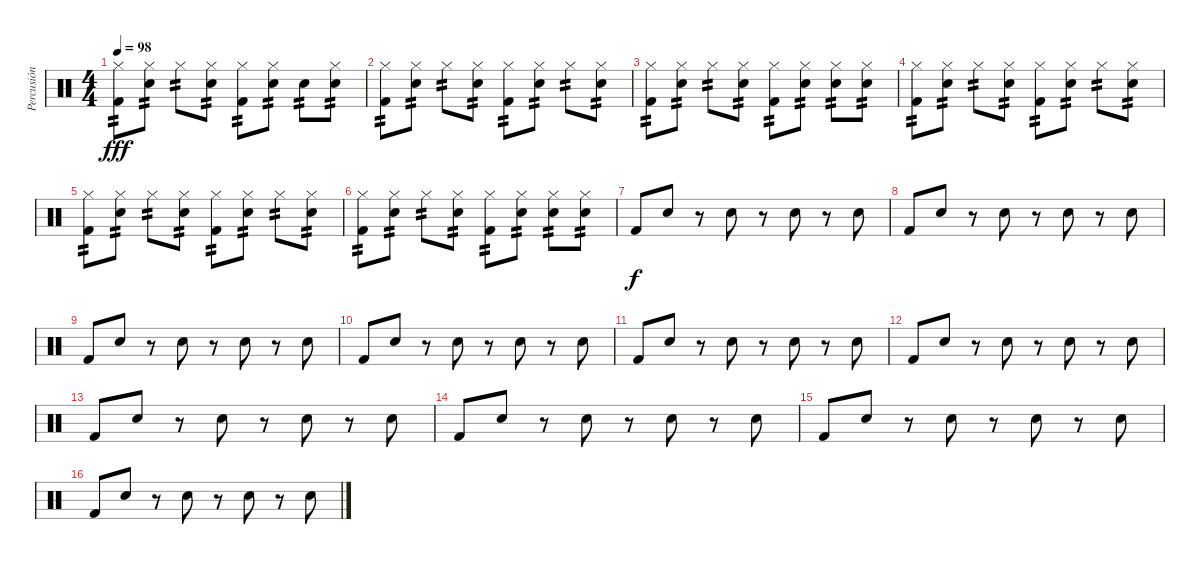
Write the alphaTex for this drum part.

\track ("Percusión" "Percusión") {instrument percussion}
\staff {score}
\articulation defaults
\ts (4 4)
\tempo 98
\clef neutral
\ks c
("Hi-Hat (closed)" "Kick (hit) 2").8{tp 2 dy fff} ("Hi-Hat (closed)" "Snare (hit) 2").8{tp 2} "Hi-Hat (closed)".8{tp 2} ("Hi-Hat (closed)" "Snare (hit) 2").8{tp 2} ("Hi-Hat (closed)" "Kick (hit) 2").8{tp 2} ("Hi-Hat (closed)" "Snare (hit) 2").8{tp 2} "Snare (hit) 2".8{tp 2} ("Hi-Hat (closed)" "Snare (hit) 2").8{tp 2} |
("Hi-Hat (closed)" "Kick (hit) 2").8{tp 2} ("Hi-Hat (closed)" "Snare (hit) 2").8{tp 2} "Hi-Hat (closed)".8{tp 2} ("Hi-Hat (closed)" "Snare (hit) 2").8{tp 2} ("Hi-Hat (closed)" "Kick (hit) 2").8{tp 2} ("Hi-Hat (closed)" "Snare (hit) 2").8{tp 2} "Hi-Hat (closed)".8{tp 2} ("Hi-Hat (closed)" "Snare (hit) 2").8{tp 2} |
("Hi-Hat (closed)" "Kick (hit) 2").8{tp 2} ("Hi-Hat (closed)" "Snare (hit) 2").8{tp 2} "Hi-Hat (closed)".8{tp 2} ("Hi-Hat (closed)" "Snare (hit) 2").8{tp 2} ("Hi-Hat (closed)" "Kick (hit) 2").8{tp 2} ("Hi-Hat (closed)" "Snare (hit) 2").8{tp 2} ("Hi-Hat (closed)" "Snare (hit) 2").8{tp 2} ("Hi-Hat (closed)" "Snare (hit) 2").8{tp 2} |
("Hi-Hat (closed)" "Kick (hit) 2").8{tp 2} ("Hi-Hat (closed)" "Snare (hit) 2").8{tp 2} "Hi-Hat (closed)".8{tp 2} ("Hi-Hat (closed)" "Snare (hit) 2").8{tp 2} ("Hi-Hat (closed)" "Kick (hit) 2").8{tp 2} ("Hi-Hat (closed)" "Snare (hit) 2").8{tp 2} "Hi-Hat (closed)".8{tp 2} ("Hi-Hat (closed)" "Snare (hit) 2").8{tp 2} |
("Hi-Hat (closed)" "Kick (hit) 2").8{tp 2} ("Hi-Hat (closed)" "Snare (hit) 2").8{tp 2} "Hi-Hat (closed)".8{tp 2} ("Hi-Hat (closed)" "Snare (hit) 2").8{tp 2} ("Hi-Hat (closed)" "Kick (hit) 2").8{tp 2} ("Hi-Hat (closed)" "Snare (hit) 2").8{tp 2} "Hi-Hat (closed)".8{tp 2} ("Hi-Hat (closed)" "Snare (hit) 2").8{tp 2} |
("Hi-Hat (closed)" "Kick (hit) 2").8{tp 2} ("Hi-Hat (closed)" "Snare (hit) 2").8{tp 2} "Hi-Hat (closed)".8{tp 2} ("Hi-Hat (closed)" "Snare (hit) 2").8{tp 2} ("Hi-Hat (closed)" "Kick (hit) 2").8{tp 2} ("Hi-Hat (closed)" "Snare (hit) 2").8{tp 2} ("Hi-Hat (closed)" "Snare (hit) 2").8{tp 2} ("Hi-Hat (closed)" "Snare (hit) 2").8{tp 2} |
"Kick (hit) 2".8{dy f} "Snare (hit) 2".8 r.8 "Snare (hit) 2".8 r.8 "Snare (hit) 2".8 r.8 "Snare (hit) 2".8 |
"Kick (hit) 2".8 "Snare (hit) 2".8 r.8 "Snare (hit) 2".8 r.8 "Snare (hit) 2".8 r.8 "Snare (hit) 2".8 |
"Kick (hit) 2".8 "Snare (hit) 2".8 r.8 "Snare (hit) 2".8 r.8 "Snare (hit) 2".8 r.8 "Snare (hit) 2".8 |
"Kick (hit) 2".8 "Snare (hit) 2".8 r.8 "Snare (hit) 2".8 r.8 "Snare (hit) 2".8 r.8 "Snare (hit) 2".8 |
"Kick (hit) 2".8 "Snare (hit) 2".8 r.8 "Snare (hit) 2".8 r.8 "Snare (hit) 2".8 r.8 "Snare (hit) 2".8 |
"Kick (hit) 2".8 "Snare (hit) 2".8 r.8 "Snare (hit) 2".8 r.8 "Snare (hit) 2".8 r.8 "Snare (hit) 2".8 |
"Kick (hit) 2".8 "Snare (hit) 2".8 r.8 "Snare (hit) 2".8 r.8 "Snare (hit) 2".8 r.8 "Snare (hit) 2".8 |
"Kick (hit) 2".8 "Snare (hit) 2".8 r.8 "Snare (hit) 2".8 r.8 "Snare (hit) 2".8 r.8 "Snare (hit) 2".8 |
"Kick (hit) 2".8 "Snare (hit) 2".8 r.8 "Snare (hit) 2".8 r.8 "Snare (hit) 2".8 r.8 "Snare (hit) 2".8 |
"Kick (hit) 2".8 "Snare (hit) 2".8 r.8 "Snare (hit) 2".8 r.8 "Snare (hit) 2".8 r.8 "Snare (hit) 2".8
